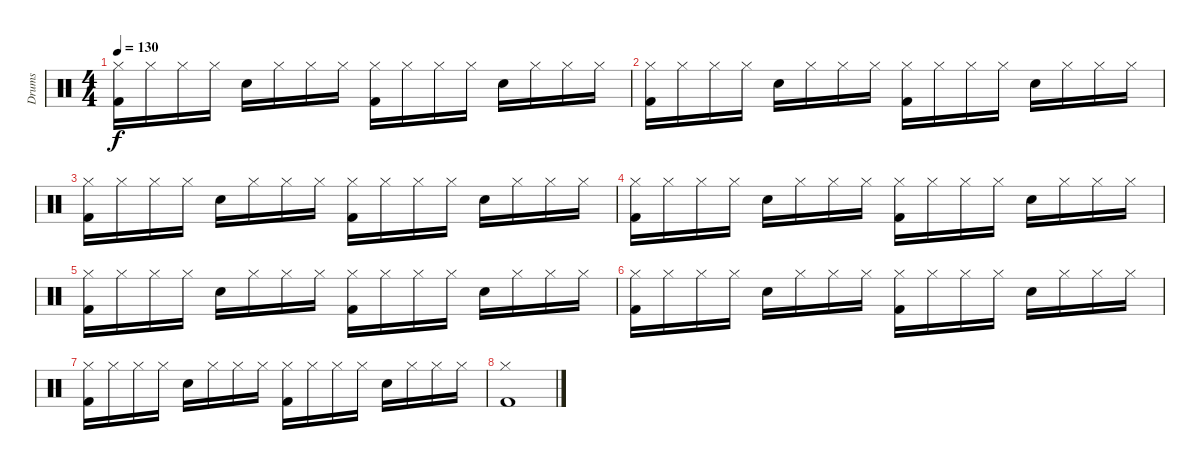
\track ("Drums" "Drums") {instrument percussion}
\staff {score}
\articulation defaults
\ts (4 4)
\tempo 130
\clef neutral
\ks c
("Hi-Hat (closed)" "Kick (hit) 2").16{dy f} "Hi-Hat (closed)".16 "Hi-Hat (closed)".16 "Hi-Hat (closed)".16 "Snare (hit) 2".16 "Hi-Hat (closed)".16 "Hi-Hat (closed)".16 "Hi-Hat (closed)".16 ("Hi-Hat (closed)" "Kick (hit) 2").16 "Hi-Hat (closed)".16 "Hi-Hat (closed)".16 "Hi-Hat (closed)".16 "Snare (hit) 2".16 "Hi-Hat (closed)".16 "Hi-Hat (closed)".16 "Hi-Hat (closed)".16 |
("Hi-Hat (closed)" "Kick (hit) 2").16 "Hi-Hat (closed)".16 "Hi-Hat (closed)".16 "Hi-Hat (closed)".16 "Snare (hit) 2".16 "Hi-Hat (closed)".16 "Hi-Hat (closed)".16 "Hi-Hat (closed)".16 ("Hi-Hat (closed)" "Kick (hit) 2").16 "Hi-Hat (closed)".16 "Hi-Hat (closed)".16 "Hi-Hat (closed)".16 "Snare (hit) 2".16 "Hi-Hat (closed)".16 "Hi-Hat (closed)".16 "Hi-Hat (closed)".16 |
("Hi-Hat (closed)" "Kick (hit) 2").16 "Hi-Hat (closed)".16 "Hi-Hat (closed)".16 "Hi-Hat (closed)".16 "Snare (hit) 2".16 "Hi-Hat (closed)".16 "Hi-Hat (closed)".16 "Hi-Hat (closed)".16 ("Hi-Hat (closed)" "Kick (hit) 2").16 "Hi-Hat (closed)".16 "Hi-Hat (closed)".16 "Hi-Hat (closed)".16 "Snare (hit) 2".16 "Hi-Hat (closed)".16 "Hi-Hat (closed)".16 "Hi-Hat (closed)".16 |
("Hi-Hat (closed)" "Kick (hit) 2").16 "Hi-Hat (closed)".16 "Hi-Hat (closed)".16 "Hi-Hat (closed)".16 "Snare (hit) 2".16 "Hi-Hat (closed)".16 "Hi-Hat (closed)".16 "Hi-Hat (closed)".16 ("Hi-Hat (closed)" "Kick (hit) 2").16 "Hi-Hat (closed)".16 "Hi-Hat (closed)".16 "Hi-Hat (closed)".16 "Snare (hit) 2".16 "Hi-Hat (closed)".16 "Hi-Hat (closed)".16 "Hi-Hat (closed)".16 |
("Hi-Hat (closed)" "Kick (hit) 2").16 "Hi-Hat (closed)".16 "Hi-Hat (closed)".16 "Hi-Hat (closed)".16 "Snare (hit) 2".16 "Hi-Hat (closed)".16 "Hi-Hat (closed)".16 "Hi-Hat (closed)".16 ("Hi-Hat (closed)" "Kick (hit) 2").16 "Hi-Hat (closed)".16 "Hi-Hat (closed)".16 "Hi-Hat (closed)".16 "Snare (hit) 2".16 "Hi-Hat (closed)".16 "Hi-Hat (closed)".16 "Hi-Hat (closed)".16 |
("Hi-Hat (closed)" "Kick (hit) 2").16 "Hi-Hat (closed)".16 "Hi-Hat (closed)".16 "Hi-Hat (closed)".16 "Snare (hit) 2".16 "Hi-Hat (closed)".16 "Hi-Hat (closed)".16 "Hi-Hat (closed)".16 ("Hi-Hat (closed)" "Kick (hit) 2").16 "Hi-Hat (closed)".16 "Hi-Hat (closed)".16 "Hi-Hat (closed)".16 "Snare (hit) 2".16 "Hi-Hat (closed)".16 "Hi-Hat (closed)".16 "Hi-Hat (closed)".16 |
("Hi-Hat (closed)" "Kick (hit) 2").16 "Hi-Hat (closed)".16 "Hi-Hat (closed)".16 "Hi-Hat (closed)".16 "Snare (hit) 2".16 "Hi-Hat (closed)".16 "Hi-Hat (closed)".16 "Hi-Hat (closed)".16 ("Hi-Hat (closed)" "Kick (hit) 2").16 "Hi-Hat (closed)".16 "Hi-Hat (closed)".16 "Hi-Hat (closed)".16 "Snare (hit) 2".16 "Hi-Hat (closed)".16 "Hi-Hat (closed)".16 "Hi-Hat (closed)".16 |
("Hi-Hat (closed)" "Kick (hit) 2").1
